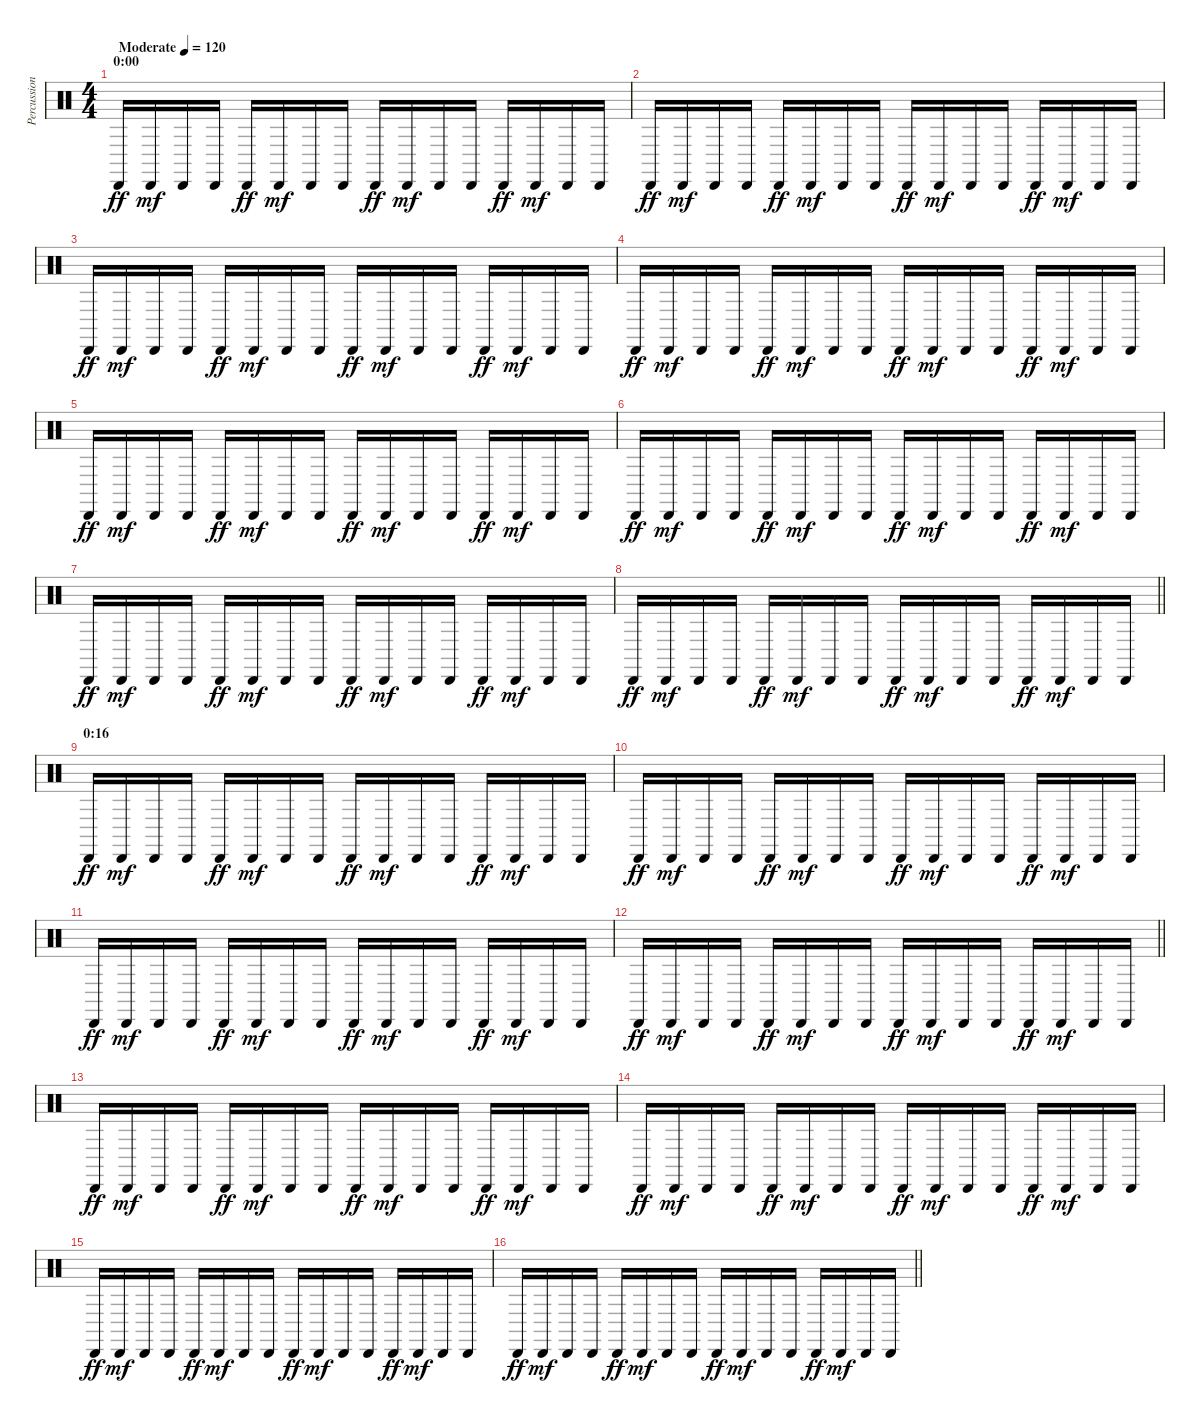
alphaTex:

\track ("Percussion" "Percussion") {instrument percussion}
\staff {score}
\articulation defaults
\ts (4 4)
\section ("" "0:00")
\tempo (120 "Moderate")
\clef neutral
\ks c "Cabasa (hit)".16{dy ff} "Cabasa (hit)".16{dy mf} "Cabasa (hit)".16 "Cabasa (hit)".16 "Cabasa (hit)".16{dy ff} "Cabasa (hit)".16{dy mf} "Cabasa (hit)".16 "Cabasa (hit)".16 "Cabasa (hit)".16{dy ff} "Cabasa (hit)".16{dy mf} "Cabasa (hit)".16 "Cabasa (hit)".16 "Cabasa (hit)".16{dy ff} "Cabasa (hit)".16{dy mf} "Cabasa (hit)".16 "Cabasa (hit)".16
|
"Cabasa (hit)".16{dy ff} "Cabasa (hit)".16{dy mf} "Cabasa (hit)".16 "Cabasa (hit)".16 "Cabasa (hit)".16{dy ff} "Cabasa (hit)".16{dy mf} "Cabasa (hit)".16 "Cabasa (hit)".16 "Cabasa (hit)".16{dy ff} "Cabasa (hit)".16{dy mf} "Cabasa (hit)".16 "Cabasa (hit)".16 "Cabasa (hit)".16{dy ff} "Cabasa (hit)".16{dy mf} "Cabasa (hit)".16 "Cabasa (hit)".16 |
"Cabasa (hit)".16{dy ff} "Cabasa (hit)".16{dy mf} "Cabasa (hit)".16 "Cabasa (hit)".16 "Cabasa (hit)".16{dy ff} "Cabasa (hit)".16{dy mf} "Cabasa (hit)".16 "Cabasa (hit)".16 "Cabasa (hit)".16{dy ff} "Cabasa (hit)".16{dy mf} "Cabasa (hit)".16 "Cabasa (hit)".16 "Cabasa (hit)".16{dy ff} "Cabasa (hit)".16{dy mf} "Cabasa (hit)".16 "Cabasa (hit)".16 |
"Cabasa (hit)".16{dy ff} "Cabasa (hit)".16{dy mf} "Cabasa (hit)".16 "Cabasa (hit)".16 "Cabasa (hit)".16{dy ff} "Cabasa (hit)".16{dy mf} "Cabasa (hit)".16 "Cabasa (hit)".16 "Cabasa (hit)".16{dy ff} "Cabasa (hit)".16{dy mf} "Cabasa (hit)".16 "Cabasa (hit)".16 "Cabasa (hit)".16{dy ff} "Cabasa (hit)".16{dy mf} "Cabasa (hit)".16 "Cabasa (hit)".16 |
"Cabasa (hit)".16{dy ff} "Cabasa (hit)".16{dy mf} "Cabasa (hit)".16 "Cabasa (hit)".16 "Cabasa (hit)".16{dy ff} "Cabasa (hit)".16{dy mf} "Cabasa (hit)".16 "Cabasa (hit)".16 "Cabasa (hit)".16{dy ff} "Cabasa (hit)".16{dy mf} "Cabasa (hit)".16 "Cabasa (hit)".16 "Cabasa (hit)".16{dy ff} "Cabasa (hit)".16{dy mf} "Cabasa (hit)".16 "Cabasa (hit)".16 |
"Cabasa (hit)".16{dy ff} "Cabasa (hit)".16{dy mf} "Cabasa (hit)".16 "Cabasa (hit)".16 "Cabasa (hit)".16{dy ff} "Cabasa (hit)".16{dy mf} "Cabasa (hit)".16 "Cabasa (hit)".16 "Cabasa (hit)".16{dy ff} "Cabasa (hit)".16{dy mf} "Cabasa (hit)".16 "Cabasa (hit)".16 "Cabasa (hit)".16{dy ff} "Cabasa (hit)".16{dy mf} "Cabasa (hit)".16 "Cabasa (hit)".16 |
"Cabasa (hit)".16{dy ff} "Cabasa (hit)".16{dy mf} "Cabasa (hit)".16 "Cabasa (hit)".16 "Cabasa (hit)".16{dy ff} "Cabasa (hit)".16{dy mf} "Cabasa (hit)".16 "Cabasa (hit)".16 "Cabasa (hit)".16{dy ff} "Cabasa (hit)".16{dy mf} "Cabasa (hit)".16 "Cabasa (hit)".16 "Cabasa (hit)".16{dy ff} "Cabasa (hit)".16{dy mf} "Cabasa (hit)".16 "Cabasa (hit)".16 |
\barLineRight lightlight "Cabasa (hit)".16{dy ff} "Cabasa (hit)".16{dy mf} "Cabasa (hit)".16 "Cabasa (hit)".16 "Cabasa (hit)".16{dy ff} "Cabasa (hit)".16{dy mf} "Cabasa (hit)".16 "Cabasa (hit)".16 "Cabasa (hit)".16{dy ff} "Cabasa (hit)".16{dy mf} "Cabasa (hit)".16 "Cabasa (hit)".16 "Cabasa (hit)".16{dy ff} "Cabasa (hit)".16{dy mf} "Cabasa (hit)".16 "Cabasa (hit)".16
|
\section ("" "0:16")
"Cabasa (hit)".16{dy ff} "Cabasa (hit)".16{dy mf} "Cabasa (hit)".16 "Cabasa (hit)".16 "Cabasa (hit)".16{dy ff} "Cabasa (hit)".16{dy mf} "Cabasa (hit)".16 "Cabasa (hit)".16 "Cabasa (hit)".16{dy ff} "Cabasa (hit)".16{dy mf} "Cabasa (hit)".16 "Cabasa (hit)".16 "Cabasa (hit)".16{dy ff} "Cabasa (hit)".16{dy mf} "Cabasa (hit)".16 "Cabasa (hit)".16 |
"Cabasa (hit)".16{dy ff} "Cabasa (hit)".16{dy mf} "Cabasa (hit)".16 "Cabasa (hit)".16 "Cabasa (hit)".16{dy ff} "Cabasa (hit)".16{dy mf} "Cabasa (hit)".16 "Cabasa (hit)".16 "Cabasa (hit)".16{dy ff} "Cabasa (hit)".16{dy mf} "Cabasa (hit)".16 "Cabasa (hit)".16 "Cabasa (hit)".16{dy ff} "Cabasa (hit)".16{dy mf} "Cabasa (hit)".16 "Cabasa (hit)".16 |
"Cabasa (hit)".16{dy ff} "Cabasa (hit)".16{dy mf} "Cabasa (hit)".16 "Cabasa (hit)".16 "Cabasa (hit)".16{dy ff} "Cabasa (hit)".16{dy mf} "Cabasa (hit)".16 "Cabasa (hit)".16 "Cabasa (hit)".16{dy ff} "Cabasa (hit)".16{dy mf} "Cabasa (hit)".16 "Cabasa (hit)".16 "Cabasa (hit)".16{dy ff} "Cabasa (hit)".16{dy mf} "Cabasa (hit)".16 "Cabasa (hit)".16 |
\barLineRight lightlight "Cabasa (hit)".16{dy ff} "Cabasa (hit)".16{dy mf} "Cabasa (hit)".16 "Cabasa (hit)".16 "Cabasa (hit)".16{dy ff} "Cabasa (hit)".16{dy mf} "Cabasa (hit)".16 "Cabasa (hit)".16 "Cabasa (hit)".16{dy ff} "Cabasa (hit)".16{dy mf} "Cabasa (hit)".16 "Cabasa (hit)".16 "Cabasa (hit)".16{dy ff} "Cabasa (hit)".16{dy mf} "Cabasa (hit)".16 "Cabasa (hit)".16
|
"Cabasa (hit)".16{dy ff} "Cabasa (hit)".16{dy mf} "Cabasa (hit)".16 "Cabasa (hit)".16 "Cabasa (hit)".16{dy ff} "Cabasa (hit)".16{dy mf} "Cabasa (hit)".16 "Cabasa (hit)".16 "Cabasa (hit)".16{dy ff} "Cabasa (hit)".16{dy mf} "Cabasa (hit)".16 "Cabasa (hit)".16 "Cabasa (hit)".16{dy ff} "Cabasa (hit)".16{dy mf} "Cabasa (hit)".16 "Cabasa (hit)".16 |
"Cabasa (hit)".16{dy ff} "Cabasa (hit)".16{dy mf} "Cabasa (hit)".16 "Cabasa (hit)".16 "Cabasa (hit)".16{dy ff} "Cabasa (hit)".16{dy mf} "Cabasa (hit)".16 "Cabasa (hit)".16 "Cabasa (hit)".16{dy ff} "Cabasa (hit)".16{dy mf} "Cabasa (hit)".16 "Cabasa (hit)".16 "Cabasa (hit)".16{dy ff} "Cabasa (hit)".16{dy mf} "Cabasa (hit)".16 "Cabasa (hit)".16 |
"Cabasa (hit)".16{dy ff} "Cabasa (hit)".16{dy mf} "Cabasa (hit)".16 "Cabasa (hit)".16 "Cabasa (hit)".16{dy ff} "Cabasa (hit)".16{dy mf} "Cabasa (hit)".16 "Cabasa (hit)".16 "Cabasa (hit)".16{dy ff} "Cabasa (hit)".16{dy mf} "Cabasa (hit)".16 "Cabasa (hit)".16 "Cabasa (hit)".16{dy ff} "Cabasa (hit)".16{dy mf} "Cabasa (hit)".16 "Cabasa (hit)".16 |
\barLineRight lightlight "Cabasa (hit)".16{dy ff} "Cabasa (hit)".16{dy mf} "Cabasa (hit)".16 "Cabasa (hit)".16 "Cabasa (hit)".16{dy ff} "Cabasa (hit)".16{dy mf} "Cabasa (hit)".16 "Cabasa (hit)".16 "Cabasa (hit)".16{dy ff} "Cabasa (hit)".16{dy mf} "Cabasa (hit)".16 "Cabasa (hit)".16 "Cabasa (hit)".16{dy ff} "Cabasa (hit)".16{dy mf} "Cabasa (hit)".16 "Cabasa (hit)".16
